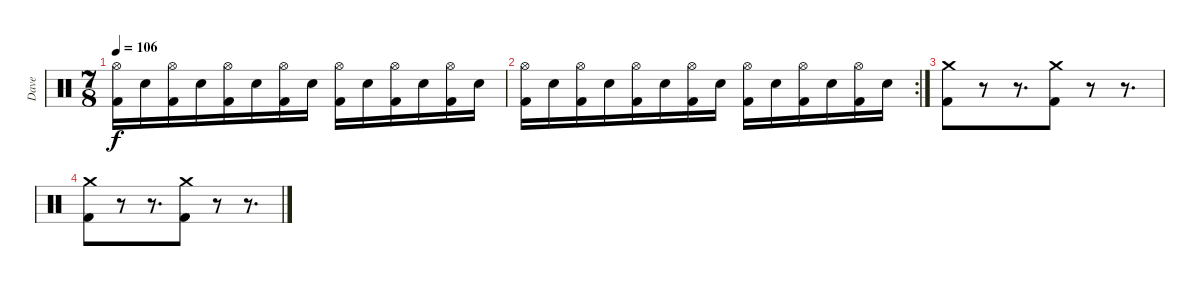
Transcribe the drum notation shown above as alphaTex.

\track ("Dave" "Dave") {instrument percussion}
\staff {score}
\articulation defaults
\ts (7 8)
\tempo 106
\clef neutral
\ks c
("Hi-Hat (open)" "Kick (hit) 2").16{dy f} "Electric Snare (hit)".16 ("Hi-Hat (open)" "Kick (hit) 2").16 "Electric Snare (hit)".16 ("Hi-Hat (open)" "Kick (hit) 2").16 "Electric Snare (hit)".16 ("Hi-Hat (open)" "Kick (hit) 2").16 "Electric Snare (hit)".16 ("Hi-Hat (open)" "Kick (hit) 2").16 "Electric Snare (hit)".16 ("Hi-Hat (open)" "Kick (hit) 2").16 "Electric Snare (hit)".16 ("Hi-Hat (open)" "Kick (hit) 2").16 "Electric Snare (hit)".16 |
\rc 2
("Hi-Hat (open)" "Kick (hit) 2").16 "Electric Snare (hit)".16 ("Hi-Hat (open)" "Kick (hit) 2").16 "Electric Snare (hit)".16 ("Hi-Hat (open)" "Kick (hit) 2").16 "Electric Snare (hit)".16 ("Hi-Hat (open)" "Kick (hit) 2").16 "Electric Snare (hit)".16 ("Hi-Hat (open)" "Kick (hit) 2").16 "Electric Snare (hit)".16 ("Hi-Hat (open)" "Kick (hit) 2").16 "Electric Snare (hit)".16 ("Hi-Hat (open)" "Kick (hit) 2").16 "Electric Snare (hit)".16 |
("Crash medium (hit)" "Kick (hit) 2").8 r.8 r.8{d} ("Crash medium (hit)" "Kick (hit) 2").8 r.8 r.8{d} |
("Crash medium (hit)" "Kick (hit) 2").8 r.8 r.8{d} ("Crash medium (hit)" "Kick (hit) 2").8 r.8 r.8{d}
